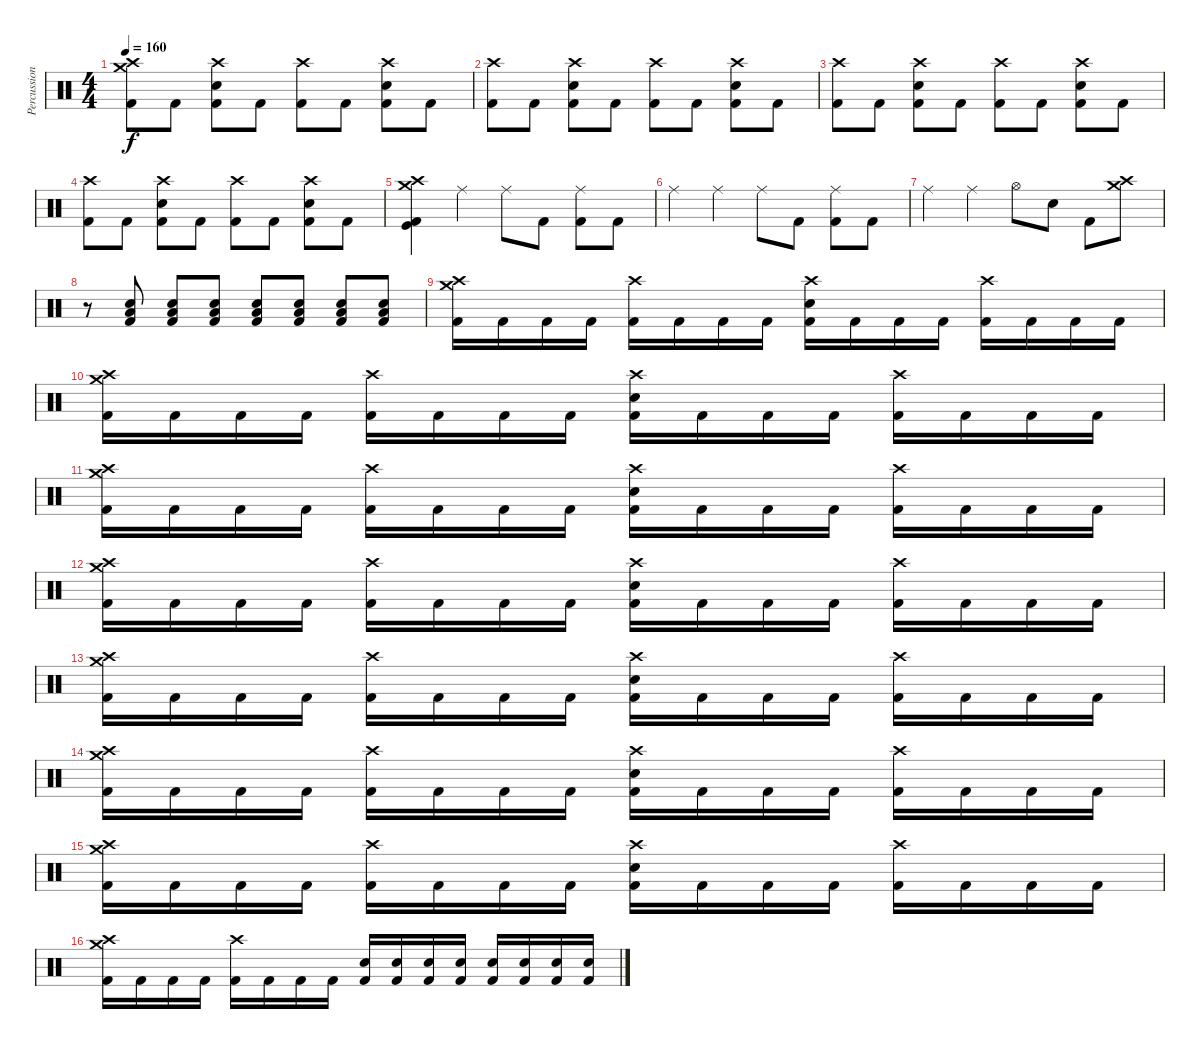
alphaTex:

\track ("Percussion" "Percussion") {instrument percussion}
\staff {score}
\articulation defaults
\ts (4 4)
\tempo 160
\clef neutral
\ks c
("Crash medium (hit)" "Crash high (hit)" "Kick (hit) 2").8{dy f} "Kick (hit) 2".8 ("Crash high (hit)" "Electric Snare (hit)" "Kick (hit) 2").8 "Kick (hit) 2".8 ("Crash high (hit)" "Kick (hit) 2").8 "Kick (hit) 2".8 ("Crash high (hit)" "Electric Snare (hit)" "Kick (hit) 2").8 "Kick (hit) 2".8 |
("Crash high (hit)" "Kick (hit) 2").8 "Kick (hit) 2".8 ("Crash high (hit)" "Electric Snare (hit)" "Kick (hit) 2").8 "Kick (hit) 2".8 ("Crash high (hit)" "Kick (hit) 2").8 "Kick (hit) 2".8 ("Crash high (hit)" "Electric Snare (hit)" "Kick (hit) 2").8 "Kick (hit) 2".8 |
("Crash high (hit)" "Kick (hit) 2").8 "Kick (hit) 2".8 ("Crash high (hit)" "Electric Snare (hit)" "Kick (hit) 2").8 "Kick (hit) 2".8 ("Crash high (hit)" "Kick (hit) 2").8 "Kick (hit) 2".8 ("Crash high (hit)" "Electric Snare (hit)" "Kick (hit) 2").8 "Kick (hit) 2".8 |
("Crash high (hit)" "Kick (hit) 2").8 "Kick (hit) 2".8 ("Crash high (hit)" "Electric Snare (hit)" "Kick (hit) 2").8 "Kick (hit) 2".8 ("Crash high (hit)" "Kick (hit) 2").8 "Kick (hit) 2".8 ("Crash high (hit)" "Electric Snare (hit)" "Kick (hit) 2").8 "Kick (hit) 2".8 |
("Crash high (hit)" "Crash medium (hit)" "Kick (hit)" "Kick (hit) 2").4 "Ride (middle)".4 "Ride (middle)".8 "Kick (hit) 2".8 ("Ride (middle)" "Kick (hit) 2").8 "Kick (hit) 2".8 |
"Ride (middle)".4 "Ride (middle)".4 "Ride (middle)".8 "Kick (hit) 2".8 ("Ride (middle)" "Kick (hit) 2").8 "Kick (hit) 2".8 |
"Ride (middle)".4 "Ride (middle)".4 "Hi-Hat (open)".8 "Electric Snare (hit)".8 "Kick (hit) 2".8 ("Crash medium (hit)" "Crash high (hit)").8 |
r.8 ("Electric Snare (hit)" "Low Floor Tom (hit)" "Kick (hit) 2").8 ("Electric Snare (hit)" "Low Floor Tom (hit)" "Kick (hit) 2").8 ("Electric Snare (hit)" "Low Floor Tom (hit)" "Kick (hit) 2").8 ("Electric Snare (hit)" "Low Floor Tom (hit)" "Kick (hit) 2").8 ("Electric Snare (hit)" "Low Floor Tom (hit)" "Kick (hit) 2").8 ("Electric Snare (hit)" "Low Floor Tom (hit)" "Kick (hit) 2").8 ("Electric Snare (hit)" "Low Floor Tom (hit)" "Kick (hit) 2").8 |
("Crash medium (hit)" "Crash high (hit)" "Kick (hit) 2").16 "Kick (hit) 2".16 "Kick (hit) 2".16 "Kick (hit) 2".16 ("Crash high (hit)" "Kick (hit) 2").16 "Kick (hit) 2".16 "Kick (hit) 2".16 "Kick (hit) 2".16 ("Crash high (hit)" "Electric Snare (hit)" "Kick (hit) 2").16 "Kick (hit) 2".16 "Kick (hit) 2".16 "Kick (hit) 2".16 ("Crash high (hit)" "Kick (hit) 2").16 "Kick (hit) 2".16 "Kick (hit) 2".16 "Kick (hit) 2".16 |
("Crash medium (hit)" "Crash high (hit)" "Kick (hit) 2").16 "Kick (hit) 2".16 "Kick (hit) 2".16 "Kick (hit) 2".16 ("Crash high (hit)" "Kick (hit) 2").16 "Kick (hit) 2".16 "Kick (hit) 2".16 "Kick (hit) 2".16 ("Crash high (hit)" "Electric Snare (hit)" "Kick (hit) 2").16 "Kick (hit) 2".16 "Kick (hit) 2".16 "Kick (hit) 2".16 ("Crash high (hit)" "Kick (hit) 2").16 "Kick (hit) 2".16 "Kick (hit) 2".16 "Kick (hit) 2".16 |
("Crash medium (hit)" "Crash high (hit)" "Kick (hit) 2").16 "Kick (hit) 2".16 "Kick (hit) 2".16 "Kick (hit) 2".16 ("Crash high (hit)" "Kick (hit) 2").16 "Kick (hit) 2".16 "Kick (hit) 2".16 "Kick (hit) 2".16 ("Crash high (hit)" "Electric Snare (hit)" "Kick (hit) 2").16 "Kick (hit) 2".16 "Kick (hit) 2".16 "Kick (hit) 2".16 ("Crash high (hit)" "Kick (hit) 2").16 "Kick (hit) 2".16 "Kick (hit) 2".16 "Kick (hit) 2".16 |
("Crash medium (hit)" "Crash high (hit)" "Kick (hit) 2").16 "Kick (hit) 2".16 "Kick (hit) 2".16 "Kick (hit) 2".16 ("Crash high (hit)" "Kick (hit) 2").16 "Kick (hit) 2".16 "Kick (hit) 2".16 "Kick (hit) 2".16 ("Crash high (hit)" "Electric Snare (hit)" "Kick (hit) 2").16 "Kick (hit) 2".16 "Kick (hit) 2".16 "Kick (hit) 2".16 ("Crash high (hit)" "Kick (hit) 2").16 "Kick (hit) 2".16 "Kick (hit) 2".16 "Kick (hit) 2".16 |
("Crash medium (hit)" "Crash high (hit)" "Kick (hit) 2").16 "Kick (hit) 2".16 "Kick (hit) 2".16 "Kick (hit) 2".16 ("Crash high (hit)" "Kick (hit) 2").16 "Kick (hit) 2".16 "Kick (hit) 2".16 "Kick (hit) 2".16 ("Crash high (hit)" "Electric Snare (hit)" "Kick (hit) 2").16 "Kick (hit) 2".16 "Kick (hit) 2".16 "Kick (hit) 2".16 ("Crash high (hit)" "Kick (hit) 2").16 "Kick (hit) 2".16 "Kick (hit) 2".16 "Kick (hit) 2".16 |
("Crash medium (hit)" "Crash high (hit)" "Kick (hit) 2").16 "Kick (hit) 2".16 "Kick (hit) 2".16 "Kick (hit) 2".16 ("Crash high (hit)" "Kick (hit) 2").16 "Kick (hit) 2".16 "Kick (hit) 2".16 "Kick (hit) 2".16 ("Crash high (hit)" "Electric Snare (hit)" "Kick (hit) 2").16 "Kick (hit) 2".16 "Kick (hit) 2".16 "Kick (hit) 2".16 ("Crash high (hit)" "Kick (hit) 2").16 "Kick (hit) 2".16 "Kick (hit) 2".16 "Kick (hit) 2".16 |
("Crash medium (hit)" "Crash high (hit)" "Kick (hit) 2").16 "Kick (hit) 2".16 "Kick (hit) 2".16 "Kick (hit) 2".16 ("Crash high (hit)" "Kick (hit) 2").16 "Kick (hit) 2".16 "Kick (hit) 2".16 "Kick (hit) 2".16 ("Crash high (hit)" "Electric Snare (hit)" "Kick (hit) 2").16 "Kick (hit) 2".16 "Kick (hit) 2".16 "Kick (hit) 2".16 ("Crash high (hit)" "Kick (hit) 2").16 "Kick (hit) 2".16 "Kick (hit) 2".16 "Kick (hit) 2".16 |
("Crash medium (hit)" "Crash high (hit)" "Kick (hit) 2").16 "Kick (hit) 2".16 "Kick (hit) 2".16 "Kick (hit) 2".16 ("Crash high (hit)" "Kick (hit) 2").16 "Kick (hit) 2".16 "Kick (hit) 2".16 "Kick (hit) 2".16 ("Electric Snare (hit)" "Kick (hit) 2").16 ("Electric Snare (hit)" "Kick (hit) 2").16 ("Electric Snare (hit)" "Kick (hit) 2").16 ("Electric Snare (hit)" "Kick (hit) 2").16 ("Electric Snare (hit)" "Kick (hit) 2").16 ("Electric Snare (hit)" "Kick (hit) 2").16 ("Electric Snare (hit)" "Kick (hit) 2").16 ("Electric Snare (hit)" "Kick (hit) 2").16
